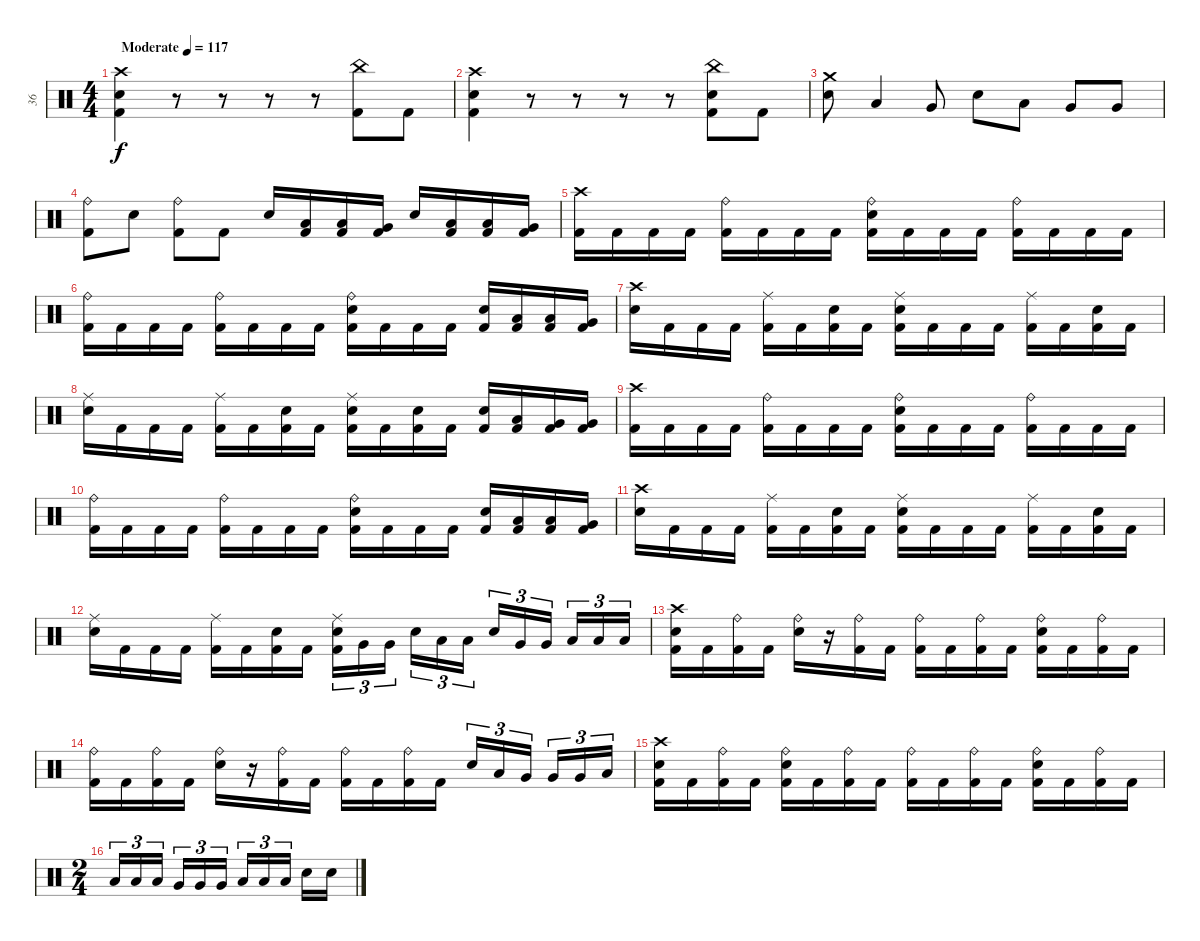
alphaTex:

\track ("36" "36") {instrument percussion}
\staff {score}
\articulation defaults
\ts (4 4)
\tempo (117 "Moderate")
\clef neutral
\ks c
("Crash high (hit)" "Electric Snare (hit)" "Kick (hit) 2").4{dy f} r.8 r.8 r.8 r.8 ("China (hit)" "Kick (hit) 2").8 "Kick (hit) 2".8 |
("Crash high (hit)" "Electric Snare (hit)" "Kick (hit) 2").4 r.8 r.8 r.8 r.8 ("China (hit)" "Electric Snare (hit)" "Kick (hit) 2").8 "Kick (hit) 2".8 |
("Crash medium (hit)" "Electric Snare (hit)").8 "Low Tom (hit)".4 "Very Low Tom (hit)".8 "Electric Snare (hit)".8 "Low Tom (hit)".8 "Very Low Tom (hit)".8 "Very Low Tom (hit)".8 |
("Ride (bell)" "Kick (hit) 2").8 "Electric Snare (hit)".8 ("Ride (bell)" "Kick (hit) 2").8 "Kick (hit) 2".8 "Electric Snare (hit)".16 ("Low Tom (hit)" "Kick (hit) 2").16 ("Low Tom (hit)" "Kick (hit) 2").16 ("Very Low Tom (hit)" "Kick (hit) 2").16 "Electric Snare (hit)".16 ("Low Tom (hit)" "Kick (hit) 2").16 ("Low Tom (hit)" "Kick (hit) 2").16 ("Very Low Tom (hit)" "Kick (hit) 2").16 |
("Crash high (hit)" "Kick (hit) 2").16 "Kick (hit) 2".16 "Kick (hit) 2".16 "Kick (hit) 2".16 ("Ride (bell)" "Kick (hit) 2").16 "Kick (hit) 2".16 "Kick (hit) 2".16 "Kick (hit) 2".16 ("Ride (bell)" "Electric Snare (hit)" "Kick (hit) 2").16 "Kick (hit) 2".16 "Kick (hit) 2".16 "Kick (hit) 2".16 ("Ride (bell)" "Kick (hit) 2").16 "Kick (hit) 2".16 "Kick (hit) 2".16 "Kick (hit) 2".16 |
("Ride (bell)" "Kick (hit) 2").16 "Kick (hit) 2".16 "Kick (hit) 2".16 "Kick (hit) 2".16 ("Ride (bell)" "Kick (hit) 2").16 "Kick (hit) 2".16 "Kick (hit) 2".16 "Kick (hit) 2".16 ("Ride (bell)" "Electric Snare (hit)" "Kick (hit) 2").16 "Kick (hit) 2".16 "Kick (hit) 2".16 "Kick (hit) 2".16 ("Electric Snare (hit)" "Kick (hit) 2").16 ("Low Tom (hit)" "Kick (hit) 2").16 ("Low Tom (hit)" "Kick (hit) 2").16 ("Very Low Tom (hit)" "Kick (hit) 2").16 |
("Crash high (hit)" "Electric Snare (hit)").16 "Kick (hit) 2".16 "Kick (hit) 2".16 "Kick (hit) 2".16 ("Ride (middle)" "Kick (hit) 2").16 "Kick (hit) 2".16 ("Electric Snare (hit)" "Kick (hit) 2").16 "Kick (hit) 2".16 ("Ride (middle)" "Electric Snare (hit)" "Kick (hit) 2").16 "Kick (hit) 2".16 "Kick (hit) 2".16 "Kick (hit) 2".16 ("Ride (middle)" "Kick (hit) 2").16 "Kick (hit) 2".16 ("Electric Snare (hit)" "Kick (hit) 2").16 "Kick (hit) 2".16 |
("Ride (middle)" "Electric Snare (hit)").16 "Kick (hit) 2".16 "Kick (hit) 2".16 "Kick (hit) 2".16 ("Ride (middle)" "Kick (hit) 2").16 "Kick (hit) 2".16 ("Electric Snare (hit)" "Kick (hit) 2").16 "Kick (hit) 2".16 ("Ride (middle)" "Electric Snare (hit)" "Kick (hit) 2").16 "Kick (hit) 2".16 ("Electric Snare (hit)" "Kick (hit) 2").16 "Kick (hit) 2".16 ("Electric Snare (hit)" "Kick (hit) 2").16 ("Low Tom (hit)" "Kick (hit) 2").16 ("Very Low Tom (hit)" "Kick (hit) 2").16 ("Very Low Tom (hit)" "Kick (hit) 2").16 |
("Crash high (hit)" "Kick (hit) 2").16 "Kick (hit) 2".16 "Kick (hit) 2".16 "Kick (hit) 2".16 ("Ride (bell)" "Kick (hit) 2").16 "Kick (hit) 2".16 "Kick (hit) 2".16 "Kick (hit) 2".16 ("Ride (bell)" "Electric Snare (hit)" "Kick (hit) 2").16 "Kick (hit) 2".16 "Kick (hit) 2".16 "Kick (hit) 2".16 ("Ride (bell)" "Kick (hit) 2").16 "Kick (hit) 2".16 "Kick (hit) 2".16 "Kick (hit) 2".16 |
("Ride (bell)" "Kick (hit) 2").16 "Kick (hit) 2".16 "Kick (hit) 2".16 "Kick (hit) 2".16 ("Ride (bell)" "Kick (hit) 2").16 "Kick (hit) 2".16 "Kick (hit) 2".16 "Kick (hit) 2".16 ("Ride (bell)" "Electric Snare (hit)" "Kick (hit) 2").16 "Kick (hit) 2".16 "Kick (hit) 2".16 "Kick (hit) 2".16 ("Electric Snare (hit)" "Kick (hit) 2").16 ("Low Tom (hit)" "Kick (hit) 2").16 ("Low Tom (hit)" "Kick (hit) 2").16 ("Very Low Tom (hit)" "Kick (hit) 2").16 |
("Crash high (hit)" "Electric Snare (hit)").16 "Kick (hit) 2".16 "Kick (hit) 2".16 "Kick (hit) 2".16 ("Ride (middle)" "Kick (hit) 2").16 "Kick (hit) 2".16 ("Electric Snare (hit)" "Kick (hit) 2").16 "Kick (hit) 2".16 ("Ride (middle)" "Electric Snare (hit)" "Kick (hit) 2").16 "Kick (hit) 2".16 "Kick (hit) 2".16 "Kick (hit) 2".16 ("Ride (middle)" "Kick (hit) 2").16 "Kick (hit) 2".16 ("Electric Snare (hit)" "Kick (hit) 2").16 "Kick (hit) 2".16 |
("Ride (middle)" "Electric Snare (hit)").16 "Kick (hit) 2".16 "Kick (hit) 2".16 "Kick (hit) 2".16 ("Ride (middle)" "Kick (hit) 2").16 "Kick (hit) 2".16 ("Electric Snare (hit)" "Kick (hit) 2").16 "Kick (hit) 2".16 ("Ride (middle)" "Electric Snare (hit)" "Kick (hit) 2").16{tu (3 2)} "Very Low Tom (hit)".16{tu (3 2)} "Very Low Tom (hit)".16{tu (3 2) beam splitsecondary} "Electric Snare (hit)".16{tu (3 2)} "Low Floor Tom (hit)".16{tu (3 2)} "Low Floor Tom (hit)".16{tu (3 2)} "Electric Snare (hit)".16{tu (3 2)} "Very Low Tom (hit)".16{tu (3 2)} "Very Low Tom (hit)".16{tu (3 2) beam splitsecondary} "Low Floor Tom (hit)".16{tu (3 2)} "Low Floor Tom (hit)".16{tu (3 2)} "Low Floor Tom (hit)".16{tu (3 2)} |
("Crash high (hit)" "Electric Snare (hit)" "Kick (hit) 2").16 "Kick (hit) 2".16 ("Ride (bell)" "Kick (hit) 2").16 "Kick (hit) 2".16 ("Ride (bell)" "Electric Snare (hit)").16 r.16 ("Ride (bell)" "Kick (hit) 2").16 "Kick (hit) 2".16 ("Ride (bell)" "Kick (hit) 2").16 "Kick (hit) 2".16 ("Ride (bell)" "Kick (hit) 2").16 "Kick (hit) 2".16 ("Ride (bell)" "Electric Snare (hit)" "Kick (hit) 2").16 "Kick (hit) 2".16 ("Ride (bell)" "Kick (hit) 2").16 "Kick (hit) 2".16 |
("Ride (bell)" "Kick (hit) 2").16 "Kick (hit) 2".16 ("Ride (bell)" "Kick (hit) 2").16 "Kick (hit) 2".16 ("Ride (bell)" "Electric Snare (hit)").16 r.16 ("Ride (bell)" "Kick (hit) 2").16 "Kick (hit) 2".16 ("Ride (bell)" "Kick (hit) 2").16 "Kick (hit) 2".16 ("Ride (bell)" "Kick (hit) 2").16 "Kick (hit) 2".16 "Electric Snare (hit)".16{tu (3 2)} "Low Tom (hit)".16{tu (3 2)} "Very Low Tom (hit)".16{tu (3 2) beam splitsecondary} "Very Low Tom (hit)".16{tu (3 2)} "Very Low Tom (hit)".16{tu (3 2)} "Low Floor Tom (hit)".16{tu (3 2)} |
("Crash high (hit)" "Electric Snare (hit)" "Kick (hit) 2").16 "Kick (hit) 2".16 ("Ride (bell)" "Kick (hit) 2").16 "Kick (hit) 2".16 ("Ride (bell)" "Electric Snare (hit)" "Kick (hit) 2").16 "Kick (hit) 2".16 ("Ride (bell)" "Kick (hit) 2").16 "Kick (hit) 2".16 ("Ride (bell)" "Kick (hit) 2").16 "Kick (hit) 2".16 ("Ride (bell)" "Kick (hit) 2").16 "Kick (hit) 2".16 ("Ride (bell)" "Electric Snare (hit)" "Kick (hit) 2").16 "Kick (hit) 2".16 ("Ride (bell)" "Kick (hit) 2").16 "Kick (hit) 2".16 |
\ts (2 4)
"Low Tom (hit)".16{tu (3 2)} "Low Tom (hit)".16{tu (3 2)} "Low Tom (hit)".16{tu (3 2) beam splitsecondary} "Very Low Tom (hit)".16{tu (3 2)} "Very Low Tom (hit)".16{tu (3 2)} "Very Low Tom (hit)".16{tu (3 2)} "Low Floor Tom (hit)".16{tu (3 2)} "Low Floor Tom (hit)".16{tu (3 2)} "Low Floor Tom (hit)".16{tu (3 2) beam splitsecondary} "Electric Snare (hit)".16 "Electric Snare (hit)".16
